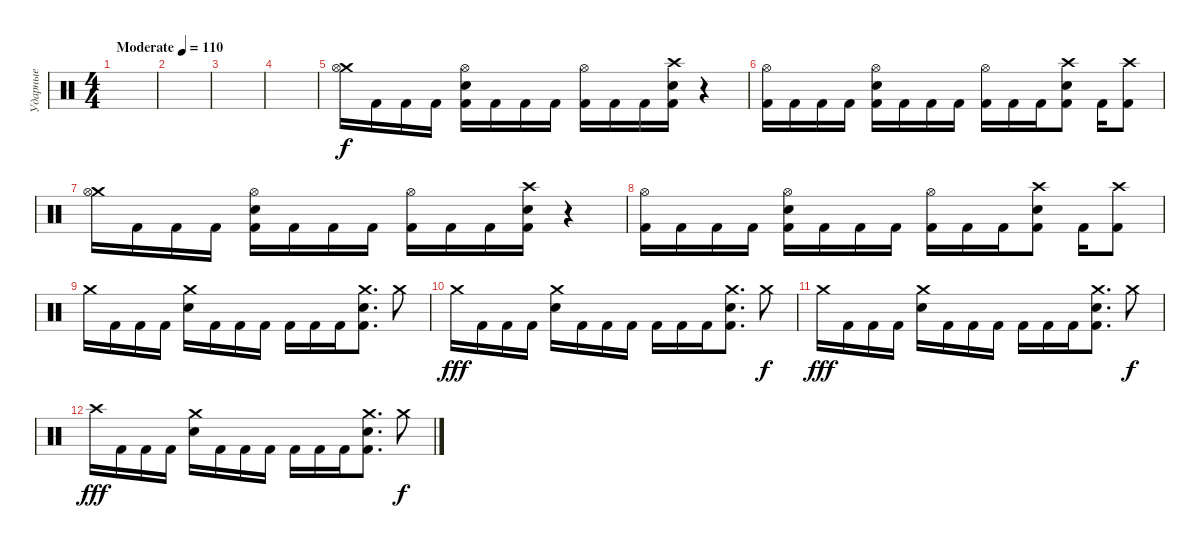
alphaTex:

\track ("Ударные" "Ударные") {instrument percussion}
\staff {score}
\articulation defaults
\ts (4 4)
\tempo (110 "Moderate")
\clef neutral
\ks c
|
|
|
|
("Crash medium (hit)" "Hi-Hat (open)").16 "Kick (hit) 2".16 "Kick (hit) 2".16 "Kick (hit) 2".16 ("Kick (hit) 2" "Hi-Hat (open)" "Snare (hit) 2").16 "Kick (hit) 2".16 "Kick (hit) 2".16 "Kick (hit) 2".16 ("Kick (hit) 2" "Hi-Hat (open)").16 "Kick (hit) 2".16 "Kick (hit) 2".16 ("Kick (hit) 2" "Crash high (hit)" "Snare (hit) 2").16 r.4 |
("Kick (hit) 2" "Hi-Hat (open)").16 "Kick (hit) 2".16 "Kick (hit) 2".16 "Kick (hit) 2".16 ("Kick (hit) 2" "Hi-Hat (open)" "Snare (hit) 2").16 "Kick (hit) 2".16 "Kick (hit) 2".16 "Kick (hit) 2".16 ("Kick (hit) 2" "Hi-Hat (open)").16 "Kick (hit) 2".16 "Kick (hit) 2".16 ("Kick (hit) 2" "Crash high (hit)" "Snare (hit) 2").8 "Kick (hit) 2".16 ("Kick (hit) 2" "Crash high (hit)").8 |
("Crash medium (hit)" "Hi-Hat (open)").16 "Kick (hit) 2".16 "Kick (hit) 2".16 "Kick (hit) 2".16 ("Kick (hit) 2" "Hi-Hat (open)" "Snare (hit) 2").16 "Kick (hit) 2".16 "Kick (hit) 2".16 "Kick (hit) 2".16 ("Kick (hit) 2" "Hi-Hat (open)").16 "Kick (hit) 2".16 "Kick (hit) 2".16 ("Kick (hit) 2" "Crash high (hit)" "Snare (hit) 2").16 r.4 |
("Kick (hit) 2" "Hi-Hat (open)").16 "Kick (hit) 2".16 "Kick (hit) 2".16 "Kick (hit) 2".16 ("Kick (hit) 2" "Hi-Hat (open)" "Snare (hit) 2").16 "Kick (hit) 2".16 "Kick (hit) 2".16 "Kick (hit) 2".16 ("Kick (hit) 2" "Hi-Hat (open)").16 "Kick (hit) 2".16 "Kick (hit) 2".16 ("Kick (hit) 2" "Crash high (hit)" "Snare (hit) 2").8 "Kick (hit) 2".16 ("Kick (hit) 2" "Crash high (hit)").8 |
"Crash medium (hit)".16 "Kick (hit) 2".16 "Kick (hit) 2".16 "Kick (hit) 2".16 ("Crash medium (hit)" "Snare (hit) 2").16 "Kick (hit) 2".16 "Kick (hit) 2".16 "Kick (hit) 2".16 "Kick (hit) 2".16 "Kick (hit) 2".16 "Kick (hit) 2".16 ("Crash medium (hit)" "Kick (hit) 2" "Snare (hit) 2").8{d} "Crash medium (hit)".8{dy f} |
"Crash medium (hit)".16{dy fff} "Kick (hit) 2".16 "Kick (hit) 2".16 "Kick (hit) 2".16 ("Crash medium (hit)" "Snare (hit) 2").16 "Kick (hit) 2".16 "Kick (hit) 2".16 "Kick (hit) 2".16 "Kick (hit) 2".16 "Kick (hit) 2".16 "Kick (hit) 2".16 ("Crash medium (hit)" "Kick (hit) 2" "Snare (hit) 2").8{d} "Crash medium (hit)".8{dy f} |
"Crash medium (hit)".16{dy fff} "Kick (hit) 2".16 "Kick (hit) 2".16 "Kick (hit) 2".16 ("Crash medium (hit)" "Snare (hit) 2").16 "Kick (hit) 2".16 "Kick (hit) 2".16 "Kick (hit) 2".16 "Kick (hit) 2".16 "Kick (hit) 2".16 "Kick (hit) 2".16 ("Crash medium (hit)" "Kick (hit) 2" "Snare (hit) 2").8{d} "Crash medium (hit)".8{dy f} |
"Crash high (hit)".16{dy fff} "Kick (hit) 2".16 "Kick (hit) 2".16 "Kick (hit) 2".16 ("Crash medium (hit)" "Snare (hit) 2").16 "Kick (hit) 2".16 "Kick (hit) 2".16 "Kick (hit) 2".16 "Kick (hit) 2".16 "Kick (hit) 2".16 "Kick (hit) 2".16 ("Crash medium (hit)" "Kick (hit) 2" "Snare (hit) 2").8{d} "Crash medium (hit)".8{dy f}
